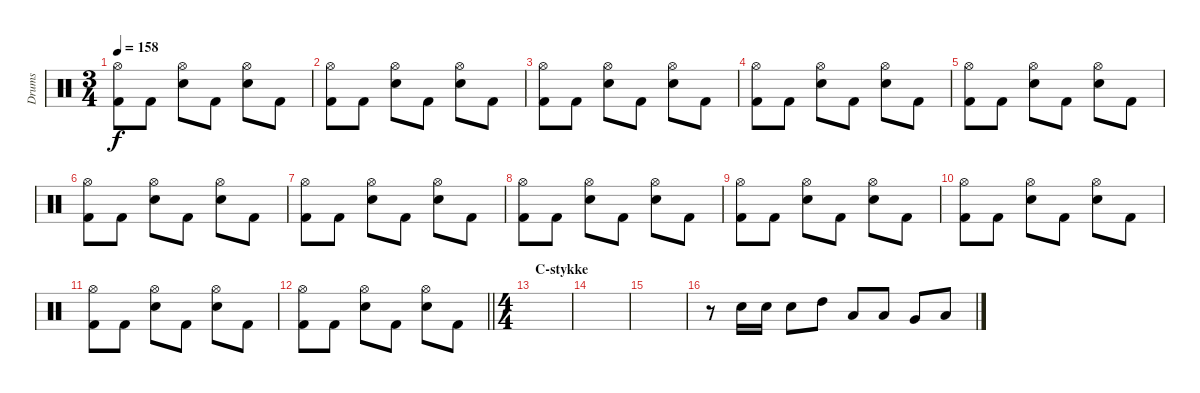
\track ("Drums" "Drums") {instrument percussion}
\staff {score}
\articulation defaults
\ts (3 4)
\tempo 158
\clef neutral
\ks c
("Hi-Hat (open)" "Kick (hit) 2").8{dy f} "Kick (hit) 2".8 ("Hi-Hat (open)" "Electric Snare (hit)").8 "Kick (hit) 2".8 ("Hi-Hat (open)" "Electric Snare (hit)").8 "Kick (hit) 2".8 |
("Hi-Hat (open)" "Kick (hit) 2").8 "Kick (hit) 2".8 ("Hi-Hat (open)" "Electric Snare (hit)").8 "Kick (hit) 2".8 ("Hi-Hat (open)" "Electric Snare (hit)").8 "Kick (hit) 2".8 |
("Hi-Hat (open)" "Kick (hit) 2").8 "Kick (hit) 2".8 ("Hi-Hat (open)" "Electric Snare (hit)").8 "Kick (hit) 2".8 ("Hi-Hat (open)" "Electric Snare (hit)").8 "Kick (hit) 2".8 |
("Hi-Hat (open)" "Kick (hit) 2").8 "Kick (hit) 2".8 ("Hi-Hat (open)" "Electric Snare (hit)").8 "Kick (hit) 2".8 ("Hi-Hat (open)" "Electric Snare (hit)").8 "Kick (hit) 2".8 |
("Hi-Hat (open)" "Kick (hit) 2").8 "Kick (hit) 2".8 ("Hi-Hat (open)" "Electric Snare (hit)").8 "Kick (hit) 2".8 ("Hi-Hat (open)" "Electric Snare (hit)").8 "Kick (hit) 2".8 |
("Hi-Hat (open)" "Kick (hit) 2").8 "Kick (hit) 2".8 ("Hi-Hat (open)" "Electric Snare (hit)").8 "Kick (hit) 2".8 ("Hi-Hat (open)" "Electric Snare (hit)").8 "Kick (hit) 2".8 |
("Hi-Hat (open)" "Kick (hit) 2").8 "Kick (hit) 2".8 ("Hi-Hat (open)" "Electric Snare (hit)").8 "Kick (hit) 2".8 ("Hi-Hat (open)" "Electric Snare (hit)").8 "Kick (hit) 2".8 |
("Hi-Hat (open)" "Kick (hit) 2").8 "Kick (hit) 2".8 ("Hi-Hat (open)" "Electric Snare (hit)").8 "Kick (hit) 2".8 ("Hi-Hat (open)" "Electric Snare (hit)").8 "Kick (hit) 2".8 |
("Hi-Hat (open)" "Kick (hit) 2").8 "Kick (hit) 2".8 ("Hi-Hat (open)" "Electric Snare (hit)").8 "Kick (hit) 2".8 ("Hi-Hat (open)" "Electric Snare (hit)").8 "Kick (hit) 2".8 |
("Hi-Hat (open)" "Kick (hit) 2").8 "Kick (hit) 2".8 ("Hi-Hat (open)" "Electric Snare (hit)").8 "Kick (hit) 2".8 ("Hi-Hat (open)" "Electric Snare (hit)").8 "Kick (hit) 2".8 |
("Hi-Hat (open)" "Kick (hit) 2").8 "Kick (hit) 2".8 ("Hi-Hat (open)" "Electric Snare (hit)").8 "Kick (hit) 2".8 ("Hi-Hat (open)" "Electric Snare (hit)").8 "Kick (hit) 2".8 |
\barLineRight lightlight
("Hi-Hat (open)" "Kick (hit) 2").8 "Kick (hit) 2".8 ("Hi-Hat (open)" "Electric Snare (hit)").8 "Kick (hit) 2".8 ("Hi-Hat (open)" "Electric Snare (hit)").8 "Kick (hit) 2".8 |
\ts (4 4)
\section ("" "C-stykke")
|
|
|
r.8 "Electric Snare (hit)".16 "Electric Snare (hit)".16 "Electric Snare (hit)".8 "High Tom (hit)".8 "Low Tom (hit)".8 "Low Tom (hit)".8 "Very Low Tom (hit)".8 "Low Floor Tom (hit)".8
